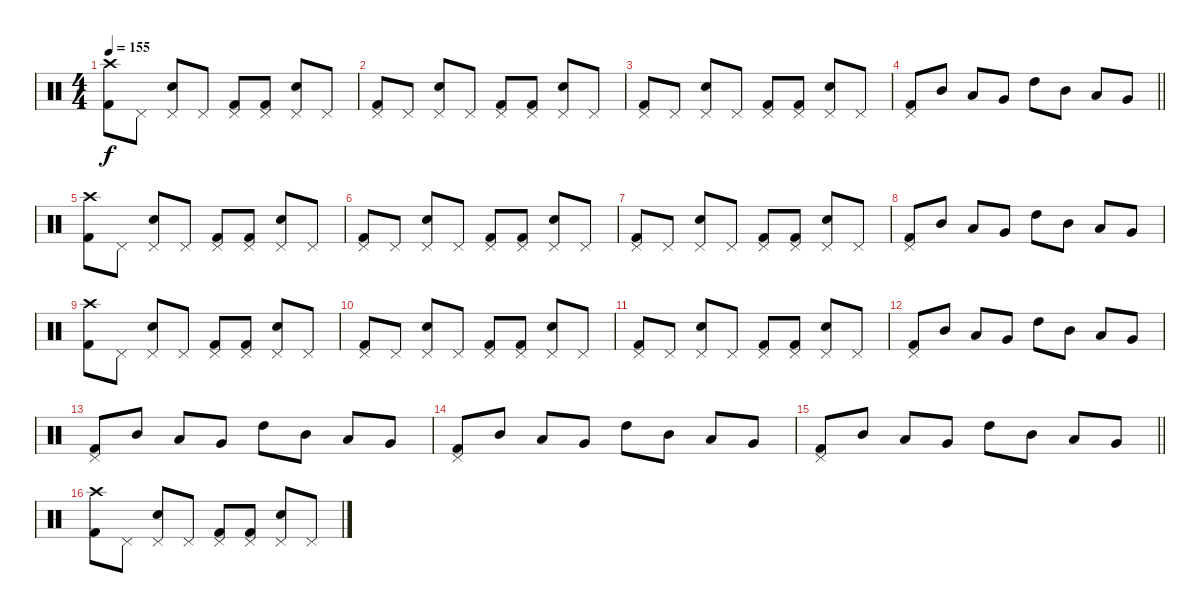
\track "" {instrument percussion}
\staff {score}
\articulation defaults
\ts (4 4)
\tempo 155
\clef neutral
\ks c
("Crash high (hit)" "Kick (hit) 2").8{dy f} "Pedal Hi-Hat (hit)".8 ("Pedal Hi-Hat (hit)" "Electric Snare (hit)").8 "Pedal Hi-Hat (hit)".8 ("Pedal Hi-Hat (hit)" "Kick (hit) 2").8 ("Pedal Hi-Hat (hit)" "Kick (hit) 2").8 ("Pedal Hi-Hat (hit)" "Electric Snare (hit)").8 "Pedal Hi-Hat (hit)".8 |
("Pedal Hi-Hat (hit)" "Kick (hit) 2").8 "Pedal Hi-Hat (hit)".8 ("Pedal Hi-Hat (hit)" "Electric Snare (hit)").8 "Pedal Hi-Hat (hit)".8 ("Pedal Hi-Hat (hit)" "Kick (hit) 2").8 ("Pedal Hi-Hat (hit)" "Kick (hit) 2").8 ("Pedal Hi-Hat (hit)" "Electric Snare (hit)").8 "Pedal Hi-Hat (hit)".8 |
("Pedal Hi-Hat (hit)" "Kick (hit) 2").8 "Pedal Hi-Hat (hit)".8 ("Pedal Hi-Hat (hit)" "Electric Snare (hit)").8 "Pedal Hi-Hat (hit)".8 ("Pedal Hi-Hat (hit)" "Kick (hit) 2").8 ("Pedal Hi-Hat (hit)" "Kick (hit) 2").8 ("Pedal Hi-Hat (hit)" "Electric Snare (hit)").8 "Pedal Hi-Hat (hit)".8 |
\barLineRight lightlight
("Pedal Hi-Hat (hit)" "Kick (hit) 2").8 "Mid Tom (hit)".8 "Low Tom (hit)".8 "Very Low Tom (hit)".8 "High Tom (hit)".8 "Mid Tom (hit)".8 "Low Tom (hit)".8 "Very Low Tom (hit)".8 |
\section ("" "")
("Crash high (hit)" "Kick (hit) 2").8 "Pedal Hi-Hat (hit)".8 ("Pedal Hi-Hat (hit)" "Electric Snare (hit)").8 "Pedal Hi-Hat (hit)".8 ("Pedal Hi-Hat (hit)" "Kick (hit) 2").8 ("Pedal Hi-Hat (hit)" "Kick (hit) 2").8 ("Pedal Hi-Hat (hit)" "Electric Snare (hit)").8 "Pedal Hi-Hat (hit)".8 |
("Pedal Hi-Hat (hit)" "Kick (hit) 2").8 "Pedal Hi-Hat (hit)".8 ("Pedal Hi-Hat (hit)" "Electric Snare (hit)").8 "Pedal Hi-Hat (hit)".8 ("Pedal Hi-Hat (hit)" "Kick (hit) 2").8 ("Pedal Hi-Hat (hit)" "Kick (hit) 2").8 ("Pedal Hi-Hat (hit)" "Electric Snare (hit)").8 "Pedal Hi-Hat (hit)".8 |
("Pedal Hi-Hat (hit)" "Kick (hit) 2").8 "Pedal Hi-Hat (hit)".8 ("Pedal Hi-Hat (hit)" "Electric Snare (hit)").8 "Pedal Hi-Hat (hit)".8 ("Pedal Hi-Hat (hit)" "Kick (hit) 2").8 ("Pedal Hi-Hat (hit)" "Kick (hit) 2").8 ("Pedal Hi-Hat (hit)" "Electric Snare (hit)").8 "Pedal Hi-Hat (hit)".8 |
("Pedal Hi-Hat (hit)" "Kick (hit) 2").8 "Mid Tom (hit)".8 "Low Tom (hit)".8 "Very Low Tom (hit)".8 "High Tom (hit)".8 "Mid Tom (hit)".8 "Low Tom (hit)".8 "Very Low Tom (hit)".8 |
("Crash high (hit)" "Kick (hit) 2").8 "Pedal Hi-Hat (hit)".8 ("Pedal Hi-Hat (hit)" "Electric Snare (hit)").8 "Pedal Hi-Hat (hit)".8 ("Pedal Hi-Hat (hit)" "Kick (hit) 2").8 ("Pedal Hi-Hat (hit)" "Kick (hit) 2").8 ("Pedal Hi-Hat (hit)" "Electric Snare (hit)").8 "Pedal Hi-Hat (hit)".8 |
("Pedal Hi-Hat (hit)" "Kick (hit) 2").8 "Pedal Hi-Hat (hit)".8 ("Pedal Hi-Hat (hit)" "Electric Snare (hit)").8 "Pedal Hi-Hat (hit)".8 ("Pedal Hi-Hat (hit)" "Kick (hit) 2").8 ("Pedal Hi-Hat (hit)" "Kick (hit) 2").8 ("Pedal Hi-Hat (hit)" "Electric Snare (hit)").8 "Pedal Hi-Hat (hit)".8 |
("Pedal Hi-Hat (hit)" "Kick (hit) 2").8 "Pedal Hi-Hat (hit)".8 ("Pedal Hi-Hat (hit)" "Electric Snare (hit)").8 "Pedal Hi-Hat (hit)".8 ("Pedal Hi-Hat (hit)" "Kick (hit) 2").8 ("Pedal Hi-Hat (hit)" "Kick (hit) 2").8 ("Pedal Hi-Hat (hit)" "Electric Snare (hit)").8 "Pedal Hi-Hat (hit)".8 |
("Pedal Hi-Hat (hit)" "Kick (hit) 2").8 "Mid Tom (hit)".8 "Low Tom (hit)".8 "Very Low Tom (hit)".8 "High Tom (hit)".8 "Mid Tom (hit)".8 "Low Tom (hit)".8 "Very Low Tom (hit)".8 |
("Pedal Hi-Hat (hit)" "Kick (hit) 2").8 "Mid Tom (hit)".8 "Low Tom (hit)".8 "Very Low Tom (hit)".8 "High Tom (hit)".8 "Mid Tom (hit)".8 "Low Tom (hit)".8 "Very Low Tom (hit)".8 |
("Pedal Hi-Hat (hit)" "Kick (hit) 2").8 "Mid Tom (hit)".8 "Low Tom (hit)".8 "Very Low Tom (hit)".8 "High Tom (hit)".8 "Mid Tom (hit)".8 "Low Tom (hit)".8 "Very Low Tom (hit)".8 |
\barLineRight lightlight
("Pedal Hi-Hat (hit)" "Kick (hit) 2").8 "Mid Tom (hit)".8 "Low Tom (hit)".8 "Very Low Tom (hit)".8 "High Tom (hit)".8 "Mid Tom (hit)".8 "Low Tom (hit)".8 "Very Low Tom (hit)".8 |
\section ("" "")
("Crash high (hit)" "Kick (hit) 2").8 "Pedal Hi-Hat (hit)".8 ("Pedal Hi-Hat (hit)" "Electric Snare (hit)").8 "Pedal Hi-Hat (hit)".8 ("Pedal Hi-Hat (hit)" "Kick (hit) 2").8 ("Pedal Hi-Hat (hit)" "Kick (hit) 2").8 ("Pedal Hi-Hat (hit)" "Electric Snare (hit)").8 "Pedal Hi-Hat (hit)".8
